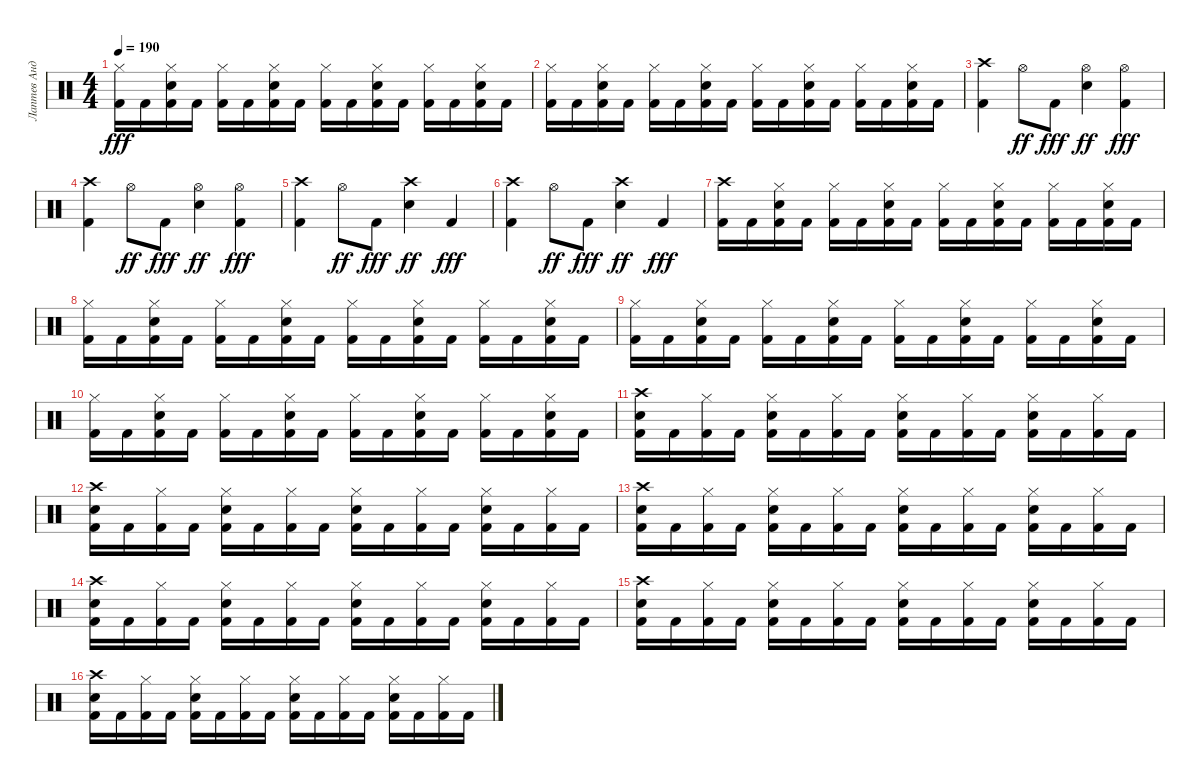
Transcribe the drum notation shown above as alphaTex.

\track ("Лаптев Андрей" "Лаптев Анд") {instrument percussion}
\staff {score}
\articulation defaults
\ts (4 4)
\tempo 190
\clef neutral
\ks c
("Hi-Hat (closed)" "Kick (hit) 2").16{dy fff} "Kick (hit) 2".16 ("Hi-Hat (closed)" "Electric Snare (hit)" "Kick (hit) 2").16 "Kick (hit) 2".16 ("Hi-Hat (closed)" "Kick (hit) 2").16 "Kick (hit) 2".16 ("Hi-Hat (closed)" "Electric Snare (hit)" "Kick (hit) 2").16 "Kick (hit) 2".16 ("Hi-Hat (closed)" "Kick (hit) 2").16 "Kick (hit) 2".16 ("Hi-Hat (closed)" "Electric Snare (hit)" "Kick (hit) 2").16 "Kick (hit) 2".16 ("Hi-Hat (closed)" "Kick (hit) 2").16 "Kick (hit) 2".16 ("Hi-Hat (closed)" "Electric Snare (hit)" "Kick (hit) 2").16 "Kick (hit) 2".16 |
("Hi-Hat (closed)" "Kick (hit) 2").16 "Kick (hit) 2".16 ("Hi-Hat (closed)" "Electric Snare (hit)" "Kick (hit) 2").16 "Kick (hit) 2".16 ("Hi-Hat (closed)" "Kick (hit) 2").16 "Kick (hit) 2".16 ("Hi-Hat (closed)" "Electric Snare (hit)" "Kick (hit) 2").16 "Kick (hit) 2".16 ("Hi-Hat (closed)" "Kick (hit) 2").16 "Kick (hit) 2".16 ("Hi-Hat (closed)" "Electric Snare (hit)" "Kick (hit) 2").16 "Kick (hit) 2".16 ("Hi-Hat (closed)" "Kick (hit) 2").16 "Kick (hit) 2".16 ("Hi-Hat (closed)" "Electric Snare (hit)" "Kick (hit) 2").16 "Kick (hit) 2".16 |
("Crash high (hit)" "Kick (hit) 2").4 "Hi-Hat (open)".8{dy ff} "Kick (hit) 2".8{dy fff} ("Snare (hit) 2" "Hi-Hat (open)").4{dy ff} ("Hi-Hat (open)" "Kick (hit) 2").4{dy fff} |
("Crash high (hit)" "Kick (hit) 2").4 "Hi-Hat (open)".8{dy ff} "Kick (hit) 2".8{dy fff} ("Snare (hit) 2" "Hi-Hat (open)").4{dy ff} ("Hi-Hat (open)" "Kick (hit) 2").4{dy fff} |
("Crash high (hit)" "Kick (hit) 2").4 "Hi-Hat (open)".8{dy ff} "Kick (hit) 2".8{dy fff} ("Snare (hit) 2" "Crash high (hit)").4{dy ff} "Kick (hit) 2".4{dy fff} |
("Crash high (hit)" "Kick (hit) 2").4 "Hi-Hat (open)".8{dy ff} "Kick (hit) 2".8{dy fff} ("Snare (hit) 2" "Crash high (hit)").4{dy ff} "Kick (hit) 2".4{dy fff} |
("Crash high (hit)" "Kick (hit) 2").16 "Kick (hit) 2".16 ("Hi-Hat (closed)" "Electric Snare (hit)" "Kick (hit) 2").16 "Kick (hit) 2".16 ("Hi-Hat (closed)" "Kick (hit) 2").16 "Kick (hit) 2".16 ("Electric Snare (hit)" "Hi-Hat (closed)" "Kick (hit) 2").16 "Kick (hit) 2".16 ("Hi-Hat (closed)" "Kick (hit) 2").16 "Kick (hit) 2".16 ("Electric Snare (hit)" "Hi-Hat (closed)" "Kick (hit) 2").16 "Kick (hit) 2".16 ("Hi-Hat (closed)" "Kick (hit) 2").16 "Kick (hit) 2".16 ("Electric Snare (hit)" "Hi-Hat (closed)" "Kick (hit) 2").16 "Kick (hit) 2".16 |
("Hi-Hat (closed)" "Kick (hit) 2").16 "Kick (hit) 2".16 ("Electric Snare (hit)" "Hi-Hat (closed)" "Kick (hit) 2").16 "Kick (hit) 2".16 ("Hi-Hat (closed)" "Kick (hit) 2").16 "Kick (hit) 2".16 ("Electric Snare (hit)" "Hi-Hat (closed)" "Kick (hit) 2").16 "Kick (hit) 2".16 ("Hi-Hat (closed)" "Kick (hit) 2").16 "Kick (hit) 2".16 ("Electric Snare (hit)" "Hi-Hat (closed)" "Kick (hit) 2").16 "Kick (hit) 2".16 ("Hi-Hat (closed)" "Kick (hit) 2").16 "Kick (hit) 2".16 ("Electric Snare (hit)" "Hi-Hat (closed)" "Kick (hit) 2").16 "Kick (hit) 2".16 |
("Hi-Hat (closed)" "Kick (hit) 2").16 "Kick (hit) 2".16 ("Electric Snare (hit)" "Hi-Hat (closed)" "Kick (hit) 2").16 "Kick (hit) 2".16 ("Hi-Hat (closed)" "Kick (hit) 2").16 "Kick (hit) 2".16 ("Electric Snare (hit)" "Hi-Hat (closed)" "Kick (hit) 2").16 "Kick (hit) 2".16 ("Hi-Hat (closed)" "Kick (hit) 2").16 "Kick (hit) 2".16 ("Electric Snare (hit)" "Hi-Hat (closed)" "Kick (hit) 2").16 "Kick (hit) 2".16 ("Hi-Hat (closed)" "Kick (hit) 2").16 "Kick (hit) 2".16 ("Electric Snare (hit)" "Hi-Hat (closed)" "Kick (hit) 2").16 "Kick (hit) 2".16 |
("Hi-Hat (closed)" "Kick (hit) 2").16 "Kick (hit) 2".16 ("Electric Snare (hit)" "Hi-Hat (closed)" "Kick (hit) 2").16 "Kick (hit) 2".16 ("Hi-Hat (closed)" "Kick (hit) 2").16 "Kick (hit) 2".16 ("Electric Snare (hit)" "Hi-Hat (closed)" "Kick (hit) 2").16 "Kick (hit) 2".16 ("Hi-Hat (closed)" "Kick (hit) 2").16 "Kick (hit) 2".16 ("Electric Snare (hit)" "Hi-Hat (closed)" "Kick (hit) 2").16 "Kick (hit) 2".16 ("Hi-Hat (closed)" "Kick (hit) 2").16 "Kick (hit) 2".16 ("Hi-Hat (closed)" "Electric Snare (hit)" "Kick (hit) 2").16 "Kick (hit) 2".16 |
("Electric Snare (hit)" "Crash high (hit)" "Kick (hit) 2").16 "Kick (hit) 2".16 ("Hi-Hat (closed)" "Kick (hit) 2").16 "Kick (hit) 2".16 ("Electric Snare (hit)" "Hi-Hat (closed)" "Kick (hit) 2").16 "Kick (hit) 2".16 ("Hi-Hat (closed)" "Kick (hit) 2").16 "Kick (hit) 2".16 ("Electric Snare (hit)" "Hi-Hat (closed)" "Kick (hit) 2").16 "Kick (hit) 2".16 ("Hi-Hat (closed)" "Kick (hit) 2").16 "Kick (hit) 2".16 ("Electric Snare (hit)" "Hi-Hat (closed)" "Kick (hit) 2").16 "Kick (hit) 2".16 ("Hi-Hat (closed)" "Kick (hit) 2").16 "Kick (hit) 2".16 |
("Electric Snare (hit)" "Crash high (hit)" "Kick (hit) 2").16 "Kick (hit) 2".16 ("Hi-Hat (closed)" "Kick (hit) 2").16 "Kick (hit) 2".16 ("Electric Snare (hit)" "Hi-Hat (closed)" "Kick (hit) 2").16 "Kick (hit) 2".16 ("Hi-Hat (closed)" "Kick (hit) 2").16 "Kick (hit) 2".16 ("Electric Snare (hit)" "Hi-Hat (closed)" "Kick (hit) 2").16 "Kick (hit) 2".16 ("Hi-Hat (closed)" "Kick (hit) 2").16 "Kick (hit) 2".16 ("Electric Snare (hit)" "Hi-Hat (closed)" "Kick (hit) 2").16 "Kick (hit) 2".16 ("Hi-Hat (closed)" "Kick (hit) 2").16 "Kick (hit) 2".16 |
("Electric Snare (hit)" "Crash high (hit)" "Kick (hit) 2").16 "Kick (hit) 2".16 ("Hi-Hat (closed)" "Kick (hit) 2").16 "Kick (hit) 2".16 ("Electric Snare (hit)" "Hi-Hat (closed)" "Kick (hit) 2").16 "Kick (hit) 2".16 ("Hi-Hat (closed)" "Kick (hit) 2").16 "Kick (hit) 2".16 ("Electric Snare (hit)" "Hi-Hat (closed)" "Kick (hit) 2").16 "Kick (hit) 2".16 ("Hi-Hat (closed)" "Kick (hit) 2").16 "Kick (hit) 2".16 ("Electric Snare (hit)" "Hi-Hat (closed)" "Kick (hit) 2").16 "Kick (hit) 2".16 ("Hi-Hat (closed)" "Kick (hit) 2").16 "Kick (hit) 2".16 |
("Crash high (hit)" "Electric Snare (hit)" "Kick (hit) 2").16 "Kick (hit) 2".16 ("Hi-Hat (closed)" "Kick (hit) 2").16 "Kick (hit) 2".16 ("Hi-Hat (closed)" "Electric Snare (hit)" "Kick (hit) 2").16 "Kick (hit) 2".16 ("Hi-Hat (closed)" "Kick (hit) 2").16 "Kick (hit) 2".16 ("Hi-Hat (closed)" "Electric Snare (hit)" "Kick (hit) 2").16 "Kick (hit) 2".16 ("Hi-Hat (closed)" "Kick (hit) 2").16 "Kick (hit) 2".16 ("Hi-Hat (closed)" "Electric Snare (hit)" "Kick (hit) 2").16 "Kick (hit) 2".16 ("Hi-Hat (closed)" "Kick (hit) 2").16 "Kick (hit) 2".16 |
("Crash high (hit)" "Electric Snare (hit)" "Kick (hit) 2").16 "Kick (hit) 2".16 ("Hi-Hat (closed)" "Kick (hit) 2").16 "Kick (hit) 2".16 ("Hi-Hat (closed)" "Electric Snare (hit)" "Kick (hit) 2").16 "Kick (hit) 2".16 ("Hi-Hat (closed)" "Kick (hit) 2").16 "Kick (hit) 2".16 ("Hi-Hat (closed)" "Electric Snare (hit)" "Kick (hit) 2").16 "Kick (hit) 2".16 ("Hi-Hat (closed)" "Kick (hit) 2").16 "Kick (hit) 2".16 ("Hi-Hat (closed)" "Electric Snare (hit)" "Kick (hit) 2").16 "Kick (hit) 2".16 ("Hi-Hat (closed)" "Kick (hit) 2").16 "Kick (hit) 2".16 |
("Electric Snare (hit)" "Crash high (hit)" "Kick (hit) 2").16 "Kick (hit) 2".16 ("Hi-Hat (closed)" "Kick (hit) 2").16 "Kick (hit) 2".16 ("Electric Snare (hit)" "Hi-Hat (closed)" "Kick (hit) 2").16 "Kick (hit) 2".16 ("Hi-Hat (closed)" "Kick (hit) 2").16 "Kick (hit) 2".16 ("Electric Snare (hit)" "Hi-Hat (closed)" "Kick (hit) 2").16 "Kick (hit) 2".16 ("Hi-Hat (closed)" "Kick (hit) 2").16 "Kick (hit) 2".16 ("Electric Snare (hit)" "Hi-Hat (closed)" "Kick (hit) 2").16 "Kick (hit) 2".16 ("Hi-Hat (closed)" "Kick (hit) 2").16 "Kick (hit) 2".16
